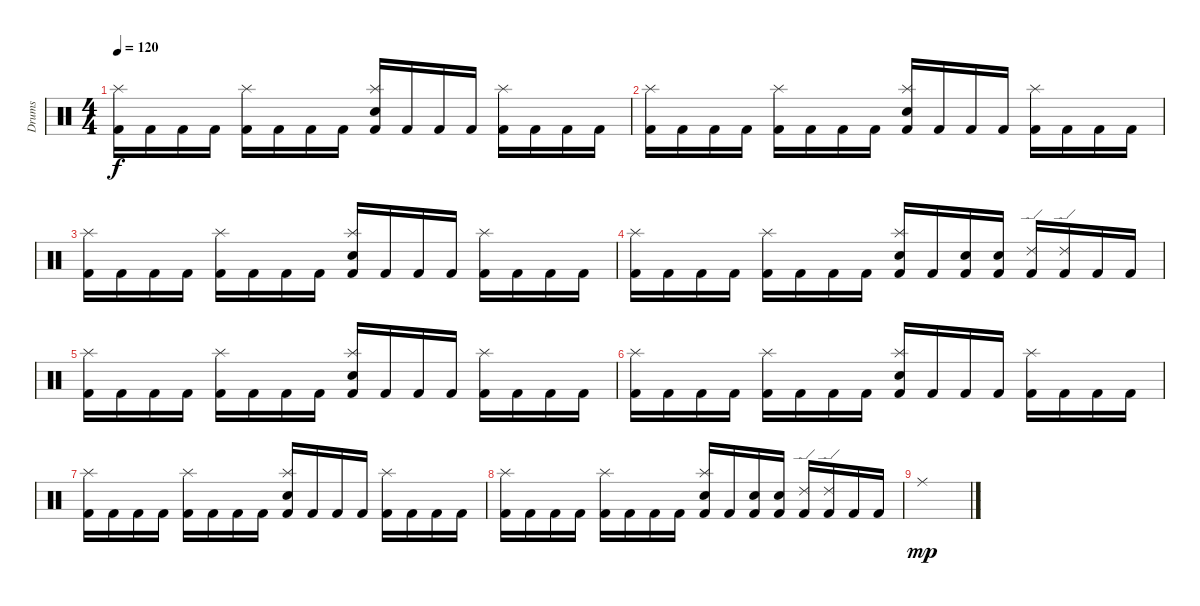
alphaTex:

\track ("Drums" "Drums") {instrument percussion}
\staff {score}
\articulation defaults
\ts (4 4)
\tempo 120
\clef neutral
\ks c
("Kick (hit) 2" "Splash (hit)").16{dy f} "Kick (hit) 2".16 "Kick (hit) 2".16 "Kick (hit) 2".16 ("Kick (hit) 2" "Splash (hit)").16 "Kick (hit) 2".16 "Kick (hit) 2".16 "Kick (hit) 2".16 ("Kick (hit) 2" "Snare (hit) 2" "Splash (hit)").16 "Kick (hit) 2".16 "Kick (hit) 2".16 "Kick (hit) 2".16 ("Kick (hit) 2" "Splash (hit)").16 "Kick (hit) 2".16 "Kick (hit) 2".16 "Kick (hit) 2".16 |
("Kick (hit) 2" "Splash (hit)").16 "Kick (hit) 2".16 "Kick (hit) 2".16 "Kick (hit) 2".16 ("Kick (hit) 2" "Splash (hit)").16 "Kick (hit) 2".16 "Kick (hit) 2".16 "Kick (hit) 2".16 ("Kick (hit) 2" "Snare (hit) 2" "Splash (hit)").16 "Kick (hit) 2".16 "Kick (hit) 2".16 "Kick (hit) 2".16 ("Kick (hit) 2" "Splash (hit)").16 "Kick (hit) 2".16 "Kick (hit) 2".16 "Kick (hit) 2".16 |
("Kick (hit) 2" "Splash (hit)").16 "Kick (hit) 2".16 "Kick (hit) 2".16 "Kick (hit) 2".16 ("Kick (hit) 2" "Splash (hit)").16 "Kick (hit) 2".16 "Kick (hit) 2".16 "Kick (hit) 2".16 ("Kick (hit) 2" "Snare (hit) 2" "Splash (hit)").16 "Kick (hit) 2".16 "Kick (hit) 2".16 "Kick (hit) 2".16 ("Kick (hit) 2" "Splash (hit)").16 "Kick (hit) 2".16 "Kick (hit) 2".16 "Kick (hit) 2".16 |
("Kick (hit) 2" "Splash (hit)").16 "Kick (hit) 2".16 "Kick (hit) 2".16 "Kick (hit) 2".16 ("Kick (hit) 2" "Splash (hit)").16 "Kick (hit) 2".16 "Kick (hit) 2".16 "Kick (hit) 2".16 ("Kick (hit) 2" "Snare (hit) 2" "Splash (hit)").16 "Kick (hit) 2".16 ("Kick (hit) 2" "Snare (hit) 2").16 ("Kick (hit) 2" "Snare (hit) 2").16 ("Kick (hit) 2" "Ride (edge) 2").16 ("Kick (hit) 2" "Ride (edge) 2").16 "Kick (hit) 2".16 "Kick (hit) 2".16 |
("Kick (hit) 2" "Splash (hit)").16 "Kick (hit) 2".16 "Kick (hit) 2".16 "Kick (hit) 2".16 ("Kick (hit) 2" "Splash (hit)").16 "Kick (hit) 2".16 "Kick (hit) 2".16 "Kick (hit) 2".16 ("Kick (hit) 2" "Snare (hit) 2" "Splash (hit)").16 "Kick (hit) 2".16 "Kick (hit) 2".16 "Kick (hit) 2".16 ("Kick (hit) 2" "Splash (hit)").16 "Kick (hit) 2".16 "Kick (hit) 2".16 "Kick (hit) 2".16 |
("Kick (hit) 2" "Splash (hit)").16 "Kick (hit) 2".16 "Kick (hit) 2".16 "Kick (hit) 2".16 ("Kick (hit) 2" "Splash (hit)").16 "Kick (hit) 2".16 "Kick (hit) 2".16 "Kick (hit) 2".16 ("Kick (hit) 2" "Snare (hit) 2" "Splash (hit)").16 "Kick (hit) 2".16 "Kick (hit) 2".16 "Kick (hit) 2".16 ("Kick (hit) 2" "Splash (hit)").16 "Kick (hit) 2".16 "Kick (hit) 2".16 "Kick (hit) 2".16 |
("Kick (hit) 2" "Splash (hit)").16 "Kick (hit) 2".16 "Kick (hit) 2".16 "Kick (hit) 2".16 ("Kick (hit) 2" "Splash (hit)").16 "Kick (hit) 2".16 "Kick (hit) 2".16 "Kick (hit) 2".16 ("Kick (hit) 2" "Snare (hit) 2" "Splash (hit)").16 "Kick (hit) 2".16 "Kick (hit) 2".16 "Kick (hit) 2".16 ("Kick (hit) 2" "Splash (hit)").16 "Kick (hit) 2".16 "Kick (hit) 2".16 "Kick (hit) 2".16 |
("Kick (hit) 2" "Splash (hit)").16 "Kick (hit) 2".16 "Kick (hit) 2".16 "Kick (hit) 2".16 ("Kick (hit) 2" "Splash (hit)").16 "Kick (hit) 2".16 "Kick (hit) 2".16 "Kick (hit) 2".16 ("Kick (hit) 2" "Snare (hit) 2" "Splash (hit)").16 "Kick (hit) 2".16 ("Kick (hit) 2" "Snare (hit) 2").16 ("Kick (hit) 2" "Snare (hit) 2").16 ("Kick (hit) 2" "Ride (edge) 2").16 ("Kick (hit) 2" "Ride (edge) 2").16 "Kick (hit) 2".16 "Kick (hit) 2".16 |
"Ride (middle)".1{dy mp}
